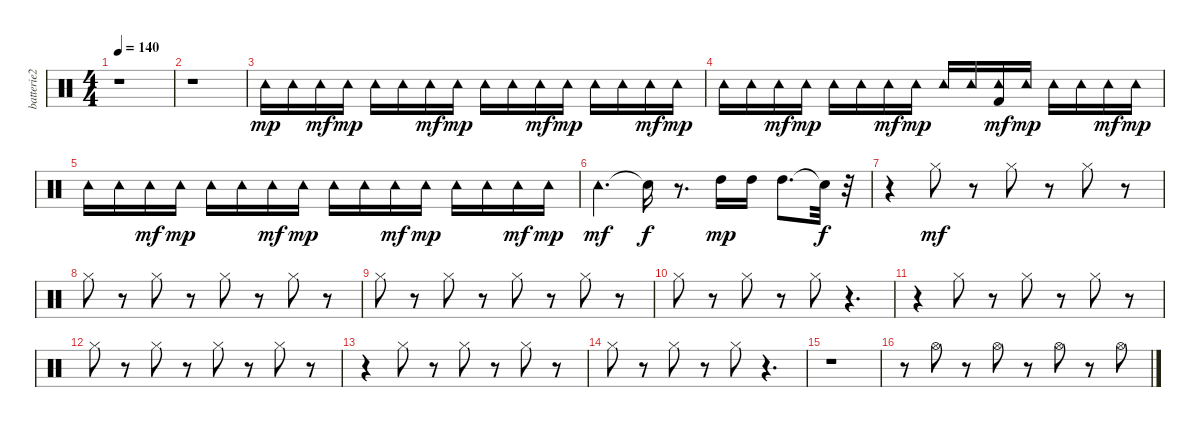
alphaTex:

\track ("batterie2" "batterie2") {instrument percussion}
\staff {score}
\articulation defaults
\ts (4 4)
\tempo 140
\clef neutral
\ks c
r.1{dy mf} |
r.1 |
"Tambourine (hit)".16{dy mp} "Tambourine (hit)".16 "Tambourine (hit)".16{dy mf} "Tambourine (hit)".16{dy mp} "Tambourine (hit)".16 "Tambourine (hit)".16 "Tambourine (hit)".16{dy mf} "Tambourine (hit)".16{dy mp} "Tambourine (hit)".16 "Tambourine (hit)".16 "Tambourine (hit)".16{dy mf} "Tambourine (hit)".16{dy mp} "Tambourine (hit)".16 "Tambourine (hit)".16 "Tambourine (hit)".16{dy mf} "Tambourine (hit)".16{dy mp} |
"Tambourine (hit)".16 "Tambourine (hit)".16 "Tambourine (hit)".16{dy mf} "Tambourine (hit)".16{dy mp} "Tambourine (hit)".16 "Tambourine (hit)".16 "Tambourine (hit)".16{dy mf} "Tambourine (hit)".16{dy mp} "Tambourine (hit)".16 "Tambourine (hit)".16 ("Kick (hit) 2" "Tambourine (hit)").16{dy mf} "Tambourine (hit)".16{dy mp} "Tambourine (hit)".16 "Tambourine (hit)".16 "Tambourine (hit)".16{dy mf} "Tambourine (hit)".16{dy mp} |
"Tambourine (hit)".16 "Tambourine (hit)".16 "Tambourine (hit)".16{dy mf} "Tambourine (hit)".16{dy mp} "Tambourine (hit)".16 "Tambourine (hit)".16 "Tambourine (hit)".16{dy mf} "Tambourine (hit)".16{dy mp} "Tambourine (hit)".16 "Tambourine (hit)".16 "Tambourine (hit)".16{dy mf} "Tambourine (hit)".16{dy mp} "Tambourine (hit)".16 "Tambourine (hit)".16 "Tambourine (hit)".16{dy mf} "Tambourine (hit)".16{dy mp} |
"Tambourine (hit)".4{d dy mf} "Snare (hit)"{t}.16{dy f} r.8{d} "High Tom (hit)".16{dy mp} "High Tom (hit)".16 "High Tom (hit)".8{d} "Snare (hit)"{t}.32{dy f} r.32 |
r.4 "Hi-Hat (closed)".8{dy mf} r.8 "Hi-Hat (closed)".8 r.8 "Hi-Hat (closed)".8 r.8 |
"Hi-Hat (closed)".8 r.8 "Hi-Hat (closed)".8 r.8 "Hi-Hat (closed)".8 r.8 "Hi-Hat (closed)".8 r.8 |
"Hi-Hat (closed)".8 r.8 "Hi-Hat (closed)".8 r.8 "Hi-Hat (closed)".8 r.8 "Hi-Hat (closed)".8 r.8 |
"Hi-Hat (closed)".8 r.8 "Hi-Hat (closed)".8 r.8 "Hi-Hat (closed)".8 r.4{d} |
r.4 "Hi-Hat (closed)".8 r.8 "Hi-Hat (closed)".8 r.8 "Hi-Hat (closed)".8 r.8 |
"Hi-Hat (closed)".8 r.8 "Hi-Hat (closed)".8 r.8 "Hi-Hat (closed)".8 r.8 "Hi-Hat (closed)".8 r.8 |
r.4 "Hi-Hat (closed)".8 r.8 "Hi-Hat (closed)".8 r.8 "Hi-Hat (closed)".8 r.8 |
"Hi-Hat (closed)".8 r.8 "Hi-Hat (closed)".8 r.8 "Hi-Hat (closed)".8 r.4{d} |
r.1 |
r.8 "Hi-Hat (open)".8 r.8 "Hi-Hat (open)".8 r.8 "Hi-Hat (open)".8 r.8 "Hi-Hat (open)".8
